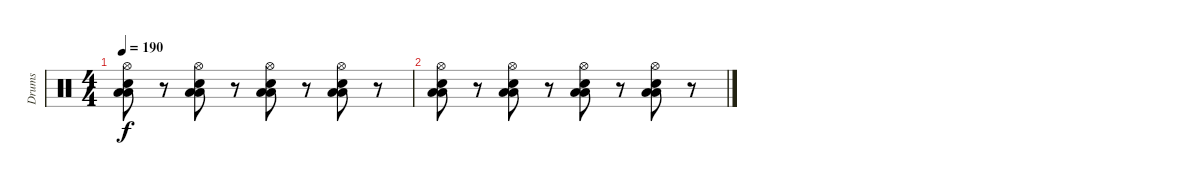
\track ("Drums" "Drums") {instrument percussion}
\staff {score}
\articulation defaults
\ts (4 4)
\tempo 190
\clef neutral
\ks c
("Electric Snare (hit)" "Low Tom (hit)" "Low Tom (hit)" "Hi-Hat (open)").8{dy f} r.8 ("Electric Snare (hit)" "Low Tom (hit)" "Low Tom (hit)" "Hi-Hat (open)").8 r.8 ("Electric Snare (hit)" "Low Tom (hit)" "Low Tom (hit)" "Hi-Hat (open)").8 r.8 ("Electric Snare (hit)" "Low Tom (hit)" "Low Tom (hit)" "Hi-Hat (open)").8 r.8 |
("Electric Snare (hit)" "Low Tom (hit)" "Low Tom (hit)" "Hi-Hat (open)").8 r.8 ("Electric Snare (hit)" "Low Tom (hit)" "Low Tom (hit)" "Hi-Hat (open)").8 r.8 ("Electric Snare (hit)" "Low Tom (hit)" "Low Tom (hit)" "Hi-Hat (open)").8 r.8 ("Electric Snare (hit)" "Low Tom (hit)" "Low Tom (hit)" "Hi-Hat (open)").8 r.8
